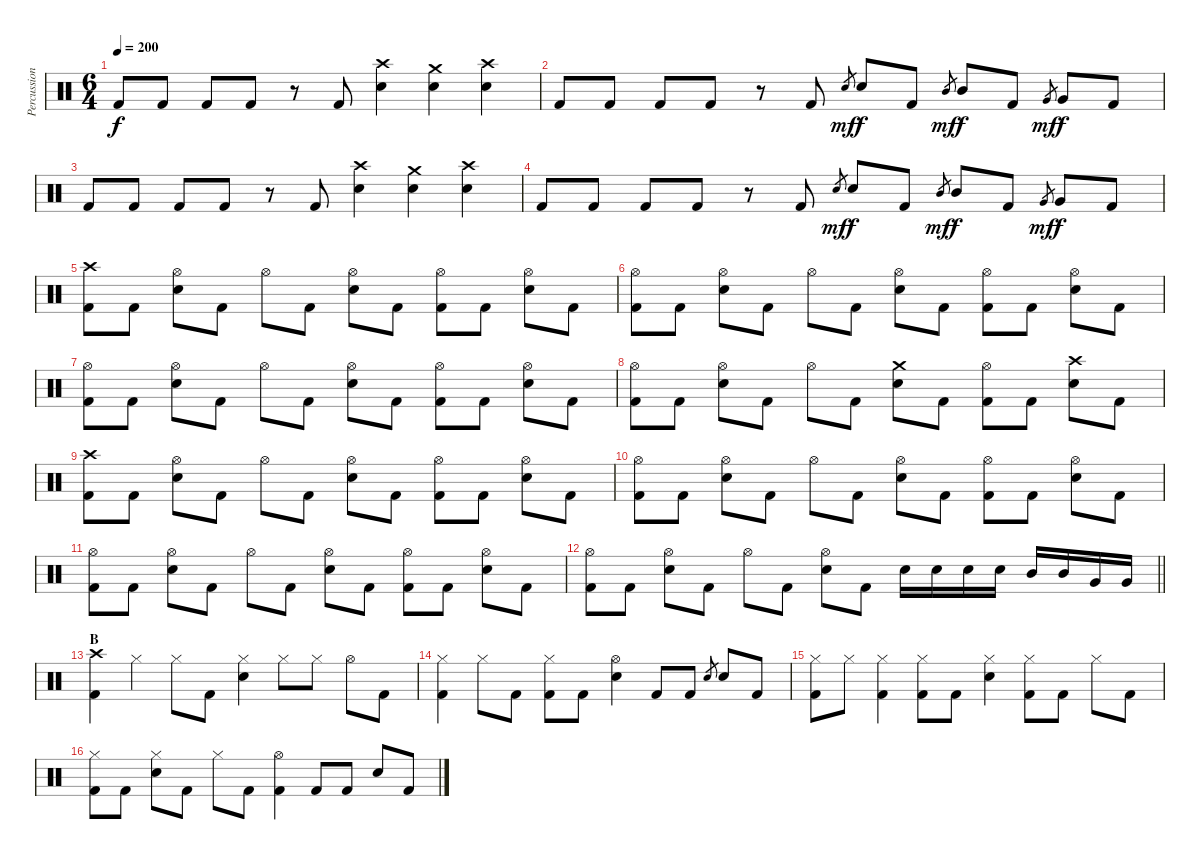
\track ("Percussion" "Percussion") {instrument percussion}
\staff {score}
\articulation defaults
\ts (6 4)
\tempo 200
\clef neutral
\ks c "Kick (hit) 2".8{dy f} "Kick (hit) 2".8 "Kick (hit) 2".8 "Kick (hit) 2".8
r.8 "Kick (hit) 2".8 ("Crash high (hit)" "Electric Snare (hit)").4 ("Crash medium (hit)" "Electric Snare (hit)").4 ("Crash high (hit)" "Electric Snare (hit)").4 |
"Kick (hit) 2".8 "Kick (hit) 2".8 "Kick (hit) 2".8 "Kick (hit) 2".8 r.8 "Kick (hit) 2".8 "Electric Snare (hit)".8{gr dy mf} "Electric Snare (hit)".8{dy f} "Kick (hit) 2".8 "Mid Tom (hit)".8{gr dy mf} "Mid Tom (hit)".8{dy f} "Kick (hit) 2".8 "Very Low Tom (hit)".8{gr dy mf} "Very Low Tom (hit)".8{dy f} "Kick (hit) 2".8 |
"Kick (hit) 2".8 "Kick (hit) 2".8 "Kick (hit) 2".8 "Kick (hit) 2".8 r.8 "Kick (hit) 2".8 ("Crash high (hit)" "Electric Snare (hit)").4 ("Crash medium (hit)" "Electric Snare (hit)").4 ("Crash high (hit)" "Electric Snare (hit)").4 |
"Kick (hit) 2".8 "Kick (hit) 2".8 "Kick (hit) 2".8 "Kick (hit) 2".8 r.8 "Kick (hit) 2".8 "Electric Snare (hit)".8{gr dy mf} "Electric Snare (hit)".8{dy f} "Kick (hit) 2".8 "Mid Tom (hit)".8{gr dy mf} "Mid Tom (hit)".8{dy f} "Kick (hit) 2".8 "Very Low Tom (hit)".8{gr dy mf} "Very Low Tom (hit)".8{dy f} "Kick (hit) 2".8 |
("Crash high (hit)" "Kick (hit) 2").8 "Kick (hit) 2".8 ("Hi-Hat (open)" "Electric Snare (hit)").8 "Kick (hit) 2".8 "Hi-Hat (open)".8 "Kick (hit) 2".8 ("Hi-Hat (open)" "Electric Snare (hit)").8 "Kick (hit) 2".8 ("Hi-Hat (open)" "Kick (hit) 2").8 "Kick (hit) 2".8 ("Hi-Hat (open)" "Electric Snare (hit)").8 "Kick (hit) 2".8 |
("Hi-Hat (open)" "Kick (hit) 2").8 "Kick (hit) 2".8 ("Hi-Hat (open)" "Electric Snare (hit)").8 "Kick (hit) 2".8 "Hi-Hat (open)".8 "Kick (hit) 2".8 ("Hi-Hat (open)" "Electric Snare (hit)").8 "Kick (hit) 2".8 ("Hi-Hat (open)" "Kick (hit) 2").8 "Kick (hit) 2".8 ("Hi-Hat (open)" "Electric Snare (hit)").8 "Kick (hit) 2".8 |
("Hi-Hat (open)" "Kick (hit) 2").8 "Kick (hit) 2".8 ("Hi-Hat (open)" "Electric Snare (hit)").8 "Kick (hit) 2".8 "Hi-Hat (open)".8 "Kick (hit) 2".8 ("Hi-Hat (open)" "Electric Snare (hit)").8 "Kick (hit) 2".8 ("Hi-Hat (open)" "Kick (hit) 2").8 "Kick (hit) 2".8 ("Hi-Hat (open)" "Electric Snare (hit)").8 "Kick (hit) 2".8 |
("Hi-Hat (open)" "Kick (hit) 2").8 "Kick (hit) 2".8 ("Hi-Hat (open)" "Electric Snare (hit)").8 "Kick (hit) 2".8 "Hi-Hat (open)".8 "Kick (hit) 2".8 ("Crash medium (hit)" "Electric Snare (hit)").8 "Kick (hit) 2".8 ("Hi-Hat (open)" "Kick (hit) 2").8 "Kick (hit) 2".8 ("Crash high (hit)" "Electric Snare (hit)").8 "Kick (hit) 2".8 |
("Crash high (hit)" "Kick (hit) 2").8 "Kick (hit) 2".8 ("Hi-Hat (open)" "Electric Snare (hit)").8 "Kick (hit) 2".8 "Hi-Hat (open)".8 "Kick (hit) 2".8 ("Hi-Hat (open)" "Electric Snare (hit)").8 "Kick (hit) 2".8 ("Hi-Hat (open)" "Kick (hit) 2").8 "Kick (hit) 2".8 ("Hi-Hat (open)" "Electric Snare (hit)").8 "Kick (hit) 2".8 |
("Hi-Hat (open)" "Kick (hit) 2").8 "Kick (hit) 2".8 ("Hi-Hat (open)" "Electric Snare (hit)").8 "Kick (hit) 2".8 "Hi-Hat (open)".8 "Kick (hit) 2".8 ("Hi-Hat (open)" "Electric Snare (hit)").8 "Kick (hit) 2".8 ("Hi-Hat (open)" "Kick (hit) 2").8 "Kick (hit) 2".8 ("Hi-Hat (open)" "Electric Snare (hit)").8 "Kick (hit) 2".8 |
("Hi-Hat (open)" "Kick (hit) 2").8 "Kick (hit) 2".8 ("Hi-Hat (open)" "Electric Snare (hit)").8 "Kick (hit) 2".8 "Hi-Hat (open)".8 "Kick (hit) 2".8 ("Hi-Hat (open)" "Electric Snare (hit)").8 "Kick (hit) 2".8 ("Hi-Hat (open)" "Kick (hit) 2").8 "Kick (hit) 2".8 ("Hi-Hat (open)" "Electric Snare (hit)").8 "Kick (hit) 2".8 |
\barLineRight lightlight
("Hi-Hat (open)" "Kick (hit) 2").8 "Kick (hit) 2".8 ("Hi-Hat (open)" "Electric Snare (hit)").8 "Kick (hit) 2".8 "Hi-Hat (open)".8 "Kick (hit) 2".8 ("Hi-Hat (open)" "Electric Snare (hit)").8 "Kick (hit) 2".8 "Electric Snare (hit)".16 "Electric Snare (hit)".16 "Electric Snare (hit)".16 "Electric Snare (hit)".16 "Mid Tom (hit)".16 "Mid Tom (hit)".16 "Very Low Tom (hit)".16 "Very Low Tom (hit)".16 |
\section ("" "B")
("Crash high (hit)" "Kick (hit) 2").4 "Hi-Hat (closed)".4 "Hi-Hat (closed)".8 "Kick (hit) 2".8 ("Hi-Hat (closed)" "Electric Snare (hit)").4 "Hi-Hat (closed)".8 "Hi-Hat (closed)".8 "Hi-Hat (open)".8 "Kick (hit) 2".8 |
("Hi-Hat (closed)" "Kick (hit) 2").4 "Hi-Hat (closed)".8 "Kick (hit) 2".8 ("Hi-Hat (closed)" "Kick (hit) 2").8 "Kick (hit) 2".8 ("Hi-Hat (open)" "Electric Snare (hit)").4 "Kick (hit) 2".8 "Kick (hit) 2".8 "Electric Snare (hit)".8{gr} "Electric Snare (hit)".8 "Kick (hit) 2".8 |
("Hi-Hat (closed)" "Kick (hit) 2").8 "Hi-Hat (closed)".8 ("Hi-Hat (closed)" "Kick (hit) 2").4 ("Hi-Hat (closed)" "Kick (hit) 2").8 "Kick (hit) 2".8 ("Hi-Hat (closed)" "Electric Snare (hit)").4 ("Hi-Hat (closed)" "Kick (hit) 2").8 "Kick (hit) 2".8 "Hi-Hat (closed)".8 "Kick (hit) 2".8 |
("Hi-Hat (closed)" "Kick (hit) 2").8 "Kick (hit) 2".8 ("Hi-Hat (closed)" "Electric Snare (hit)").8 "Kick (hit) 2".8 "Hi-Hat (closed)".8 "Kick (hit) 2".8 ("Hi-Hat (open)" "Kick (hit) 2").4 "Kick (hit) 2".8 "Kick (hit) 2".8 "Electric Snare (hit)".8 "Kick (hit) 2".8
